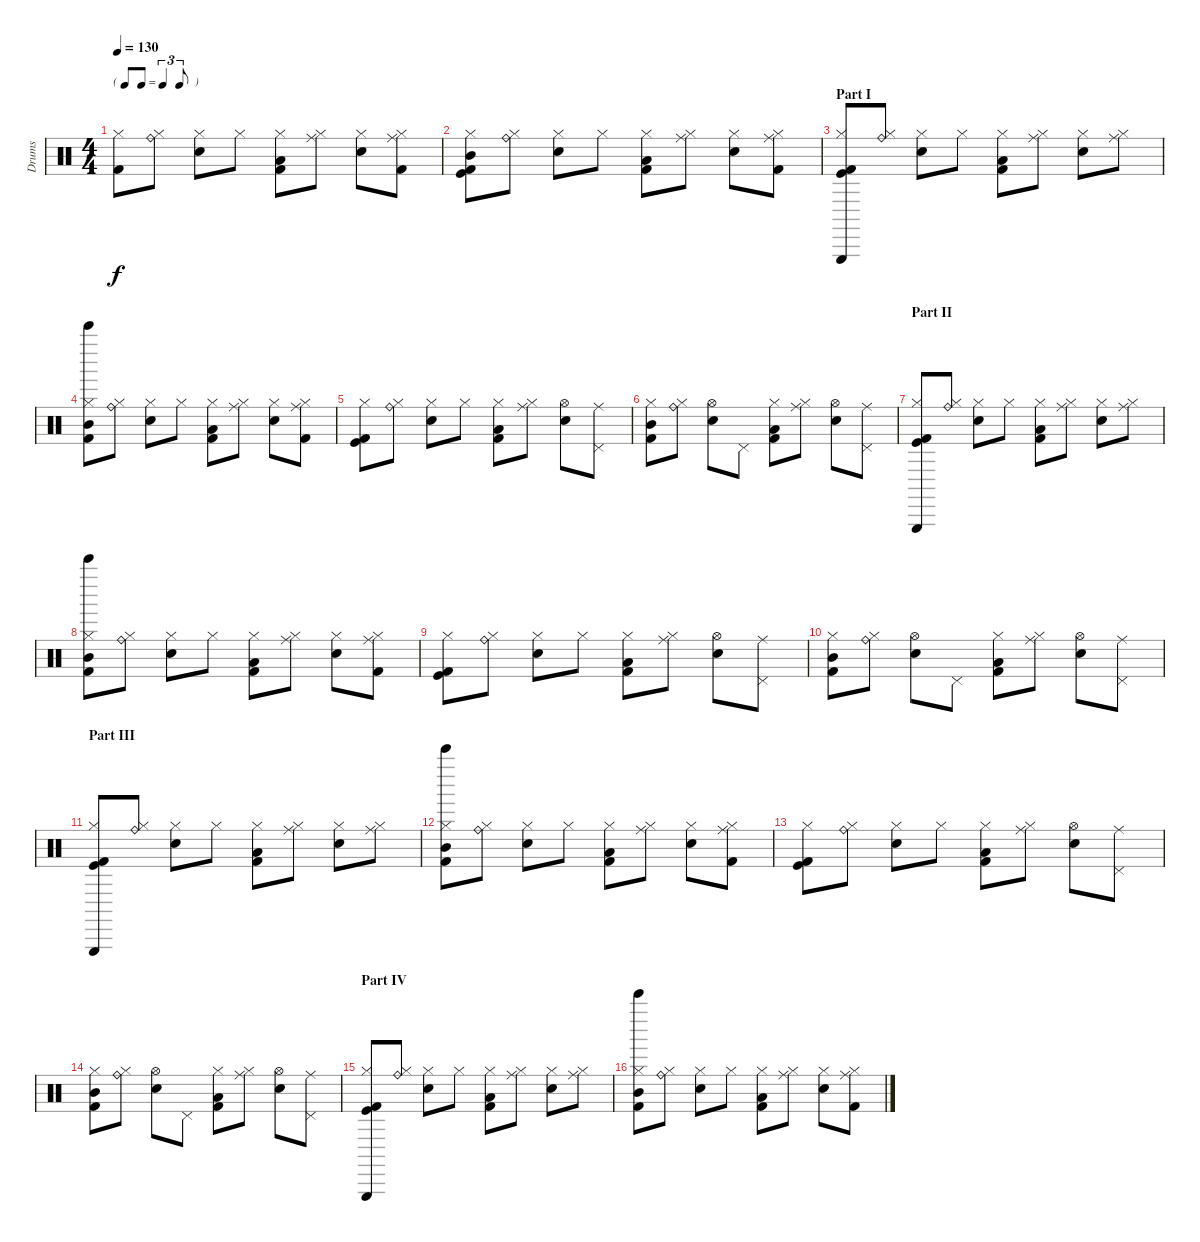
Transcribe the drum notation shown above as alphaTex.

\track ("Drums" "Drums") {instrument percussion}
\staff {score}
\articulation defaults
\ts (4 4)
\tf triplet8th
\tempo 130
\clef neutral
\ks c
("Hi-Hat (closed)" "Kick (hit) 2").8{dy f} ("Hi-Hat (closed)" "Ride (bell)").8 ("Hi-Hat (closed)" "Snare (hit) 2").8 "Hi-Hat (closed)".8 ("Hi-Hat (closed)" "Low Tom (hit)" "Kick (hit) 2").8 ("Hi-Hat (closed)" "Ride (middle)").8 ("Hi-Hat (closed)" "Snare (hit) 2").8 ("Hi-Hat (closed)" "Ride (middle)" "Kick (hit) 2").8 |
("Hi-Hat (closed)" "Mid Tom (hit)" "Kick (hit)" "Kick (hit) 2").8 ("Hi-Hat (closed)" "Ride (bell)").8 ("Hi-Hat (closed)" "Snare (hit) 2").8 "Hi-Hat (closed)".8 ("Hi-Hat (closed)" "Low Tom (hit)" "Kick (hit) 2").8 ("Hi-Hat (closed)" "Ride (middle)").8 ("Hi-Hat (closed)" "Snare (hit) 2").8 ("Hi-Hat (closed)" "Ride (middle)" "Kick (hit) 2").8 |
\section ("" "Part I")
("Hi-Hat (closed)" "Triangle (hit)" "Kick (hit)" "Kick (hit) 2").8 ("Hi-Hat (closed)" "Ride (bell)").8 ("Hi-Hat (closed)" "Snare (hit) 2").8 "Hi-Hat (closed)".8 ("Hi-Hat (closed)" "Low Tom (hit)" "Kick (hit) 2").8 ("Hi-Hat (closed)" "Ride (middle)").8 ("Hi-Hat (closed)" "Snare (hit) 2").8 ("Hi-Hat (closed)" "Ride (middle)").8 |
("Hi-Hat (closed)" "Bell Tree (hit)" "Mid Tom (hit)" "Kick (hit) 2").8 ("Hi-Hat (closed)" "Ride (bell)").8 ("Hi-Hat (closed)" "Snare (hit) 2").8 "Hi-Hat (closed)".8 ("Hi-Hat (closed)" "Low Tom (hit)" "Kick (hit) 2").8 ("Hi-Hat (closed)" "Ride (middle)").8 ("Hi-Hat (closed)" "Snare (hit) 2").8 ("Hi-Hat (closed)" "Ride (middle)" "Kick (hit) 2").8 |
("Hi-Hat (closed)" "Kick (hit)" "Kick (hit) 2").8 ("Hi-Hat (closed)" "Ride (bell)").8 ("Hi-Hat (closed)" "Snare (hit) 2").8 "Hi-Hat (closed)".8 ("Hi-Hat (closed)" "Low Tom (hit)" "Kick (hit) 2").8 ("Hi-Hat (closed)" "Ride (middle)").8 ("Hi-Hat (open)" "Snare (hit) 2").8 ("Pedal Hi-Hat (hit)" "Ride (middle)").8 |
("Hi-Hat (closed)" "Mid Tom (hit)" "Kick (hit) 2").8 ("Hi-Hat (closed)" "Ride (bell)").8 ("Hi-Hat (open)" "Snare (hit) 2").8 "Pedal Hi-Hat (hit)".8 ("Hi-Hat (closed)" "Low Tom (hit)" "Kick (hit) 2").8 ("Hi-Hat (closed)" "Ride (middle)").8 ("Hi-Hat (open)" "Snare (hit) 2").8 ("Pedal Hi-Hat (hit)" "Ride (middle)").8 |
\section ("" "Part II")
("Hi-Hat (closed)" "Triangle (hit)" "Kick (hit)" "Kick (hit) 2").8 ("Hi-Hat (closed)" "Ride (bell)").8 ("Hi-Hat (closed)" "Snare (hit) 2").8 "Hi-Hat (closed)".8 ("Hi-Hat (closed)" "Low Tom (hit)" "Kick (hit) 2").8 ("Hi-Hat (closed)" "Ride (middle)").8 ("Hi-Hat (closed)" "Snare (hit) 2").8 ("Hi-Hat (closed)" "Ride (middle)").8 |
("Hi-Hat (closed)" "Bell Tree (hit)" "Mid Tom (hit)" "Kick (hit) 2").8 ("Hi-Hat (closed)" "Ride (bell)").8 ("Hi-Hat (closed)" "Snare (hit) 2").8 "Hi-Hat (closed)".8 ("Hi-Hat (closed)" "Low Tom (hit)" "Kick (hit) 2").8 ("Hi-Hat (closed)" "Ride (middle)").8 ("Hi-Hat (closed)" "Snare (hit) 2").8 ("Hi-Hat (closed)" "Ride (middle)" "Kick (hit) 2").8 |
("Hi-Hat (closed)" "Kick (hit)" "Kick (hit) 2").8 ("Hi-Hat (closed)" "Ride (bell)").8 ("Hi-Hat (closed)" "Snare (hit) 2").8 "Hi-Hat (closed)".8 ("Hi-Hat (closed)" "Low Tom (hit)" "Kick (hit) 2").8 ("Hi-Hat (closed)" "Ride (middle)").8 ("Hi-Hat (open)" "Snare (hit) 2").8 ("Pedal Hi-Hat (hit)" "Ride (middle)").8 |
("Hi-Hat (closed)" "Mid Tom (hit)" "Kick (hit) 2").8 ("Hi-Hat (closed)" "Ride (bell)").8 ("Hi-Hat (open)" "Snare (hit) 2").8 "Pedal Hi-Hat (hit)".8 ("Hi-Hat (closed)" "Low Tom (hit)" "Kick (hit) 2").8 ("Hi-Hat (closed)" "Ride (middle)").8 ("Hi-Hat (open)" "Snare (hit) 2").8 ("Pedal Hi-Hat (hit)" "Ride (middle)").8 |
\section ("" "Part III")
("Hi-Hat (closed)" "Triangle (hit)" "Kick (hit)" "Kick (hit) 2").8 ("Hi-Hat (closed)" "Ride (bell)").8 ("Hi-Hat (closed)" "Snare (hit) 2").8 "Hi-Hat (closed)".8 ("Hi-Hat (closed)" "Low Tom (hit)" "Kick (hit) 2").8 ("Hi-Hat (closed)" "Ride (middle)").8 ("Hi-Hat (closed)" "Snare (hit) 2").8 ("Hi-Hat (closed)" "Ride (middle)").8 |
("Hi-Hat (closed)" "Bell Tree (hit)" "Mid Tom (hit)" "Kick (hit) 2").8 ("Hi-Hat (closed)" "Ride (bell)").8 ("Hi-Hat (closed)" "Snare (hit) 2").8 "Hi-Hat (closed)".8 ("Hi-Hat (closed)" "Low Tom (hit)" "Kick (hit) 2").8 ("Hi-Hat (closed)" "Ride (middle)").8 ("Hi-Hat (closed)" "Snare (hit) 2").8 ("Hi-Hat (closed)" "Ride (middle)" "Kick (hit) 2").8 |
("Hi-Hat (closed)" "Kick (hit)" "Kick (hit) 2").8 ("Hi-Hat (closed)" "Ride (bell)").8 ("Hi-Hat (closed)" "Snare (hit) 2").8 "Hi-Hat (closed)".8 ("Hi-Hat (closed)" "Low Tom (hit)" "Kick (hit) 2").8 ("Hi-Hat (closed)" "Ride (middle)").8 ("Hi-Hat (open)" "Snare (hit) 2").8 ("Pedal Hi-Hat (hit)" "Ride (middle)").8 |
("Hi-Hat (closed)" "Mid Tom (hit)" "Kick (hit) 2").8 ("Hi-Hat (closed)" "Ride (bell)").8 ("Hi-Hat (open)" "Snare (hit) 2").8 "Pedal Hi-Hat (hit)".8 ("Hi-Hat (closed)" "Low Tom (hit)" "Kick (hit) 2").8 ("Hi-Hat (closed)" "Ride (middle)").8 ("Hi-Hat (open)" "Snare (hit) 2").8 ("Pedal Hi-Hat (hit)" "Ride (middle)").8 |
\section ("" "Part IV")
("Hi-Hat (closed)" "Triangle (hit)" "Kick (hit)" "Kick (hit) 2").8 ("Hi-Hat (closed)" "Ride (bell)").8 ("Hi-Hat (closed)" "Snare (hit) 2").8 "Hi-Hat (closed)".8 ("Hi-Hat (closed)" "Low Tom (hit)" "Kick (hit) 2").8 ("Hi-Hat (closed)" "Ride (middle)").8 ("Hi-Hat (closed)" "Snare (hit) 2").8 ("Hi-Hat (closed)" "Ride (middle)").8 |
("Hi-Hat (closed)" "Bell Tree (hit)" "Mid Tom (hit)" "Kick (hit) 2").8 ("Hi-Hat (closed)" "Ride (bell)").8 ("Hi-Hat (closed)" "Snare (hit) 2").8 "Hi-Hat (closed)".8 ("Hi-Hat (closed)" "Low Tom (hit)" "Kick (hit) 2").8 ("Hi-Hat (closed)" "Ride (middle)").8 ("Hi-Hat (closed)" "Snare (hit) 2").8 ("Hi-Hat (closed)" "Ride (middle)" "Kick (hit) 2").8
